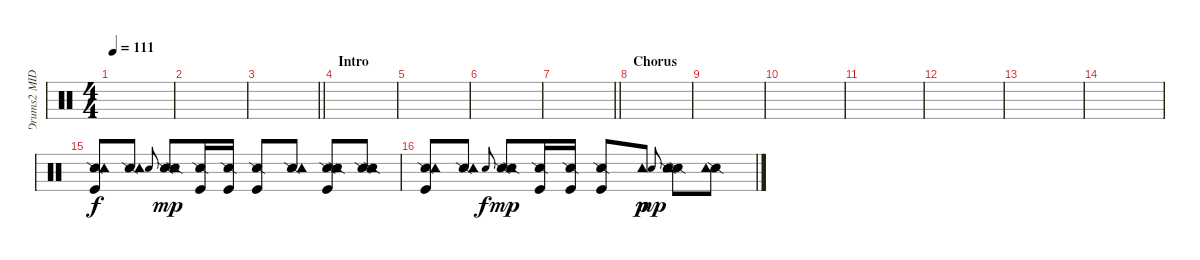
\track ("Drums2 MIDI" "Drums2 MID") {instrument percussion}
\staff {score}
\articulation defaults
\ts (4 4)
\tempo 111
\clef neutral
\ks c
|
|
\barLineRight lightlight
|
\section ("" "Intro")
|
|
|
\barLineRight lightlight
|
\section ("" "Chorus")
|
|
|
|
|
|
|
("Snare (side stick) 2" "Tambourine (hit)" "Kick (hit)").8 ("Snare (side stick) 2" "Tambourine (hit)").8 "Snare (hit)".8{gr onbeat dy f} ("Snare (side stick) 2" "Tambourine (hit)" "Snare (side stick) 2").8{dy mp} ("Snare (side stick) 2" "Kick (hit)").16 ("Snare (side stick) 2" "Kick (hit)").16 ("Snare (side stick) 2" "Kick (hit)").8 ("Snare (side stick) 2" "Tambourine (hit)").8 ("Snare (side stick) 2" "Tambourine (hit)" "Kick (hit)" "Snare (side stick) 2").8 ("Snare (side stick) 2" "Tambourine (hit)" "Snare (side stick) 2").8 |
("Snare (side stick) 2" "Tambourine (hit)" "Kick (hit)").8 ("Snare (side stick) 2" "Tambourine (hit)").8 "Snare (hit)".8{gr onbeat dy f} ("Snare (side stick) 2" "Tambourine (hit)" "Snare (side stick) 2").8{dy mp} ("Snare (side stick) 2" "Kick (hit)").16 ("Snare (side stick) 2" "Kick (hit)").16 ("Snare (side stick) 2" "Kick (hit)").8 "Tambourine (hit)".8{dy p} "Snare (hit)".8{gr onbeat dy mp} ("Snare (side stick) 2" "Tambourine (hit)" "Snare (side stick) 2").8 ("Snare (side stick) 2" "Tambourine (hit)").8
